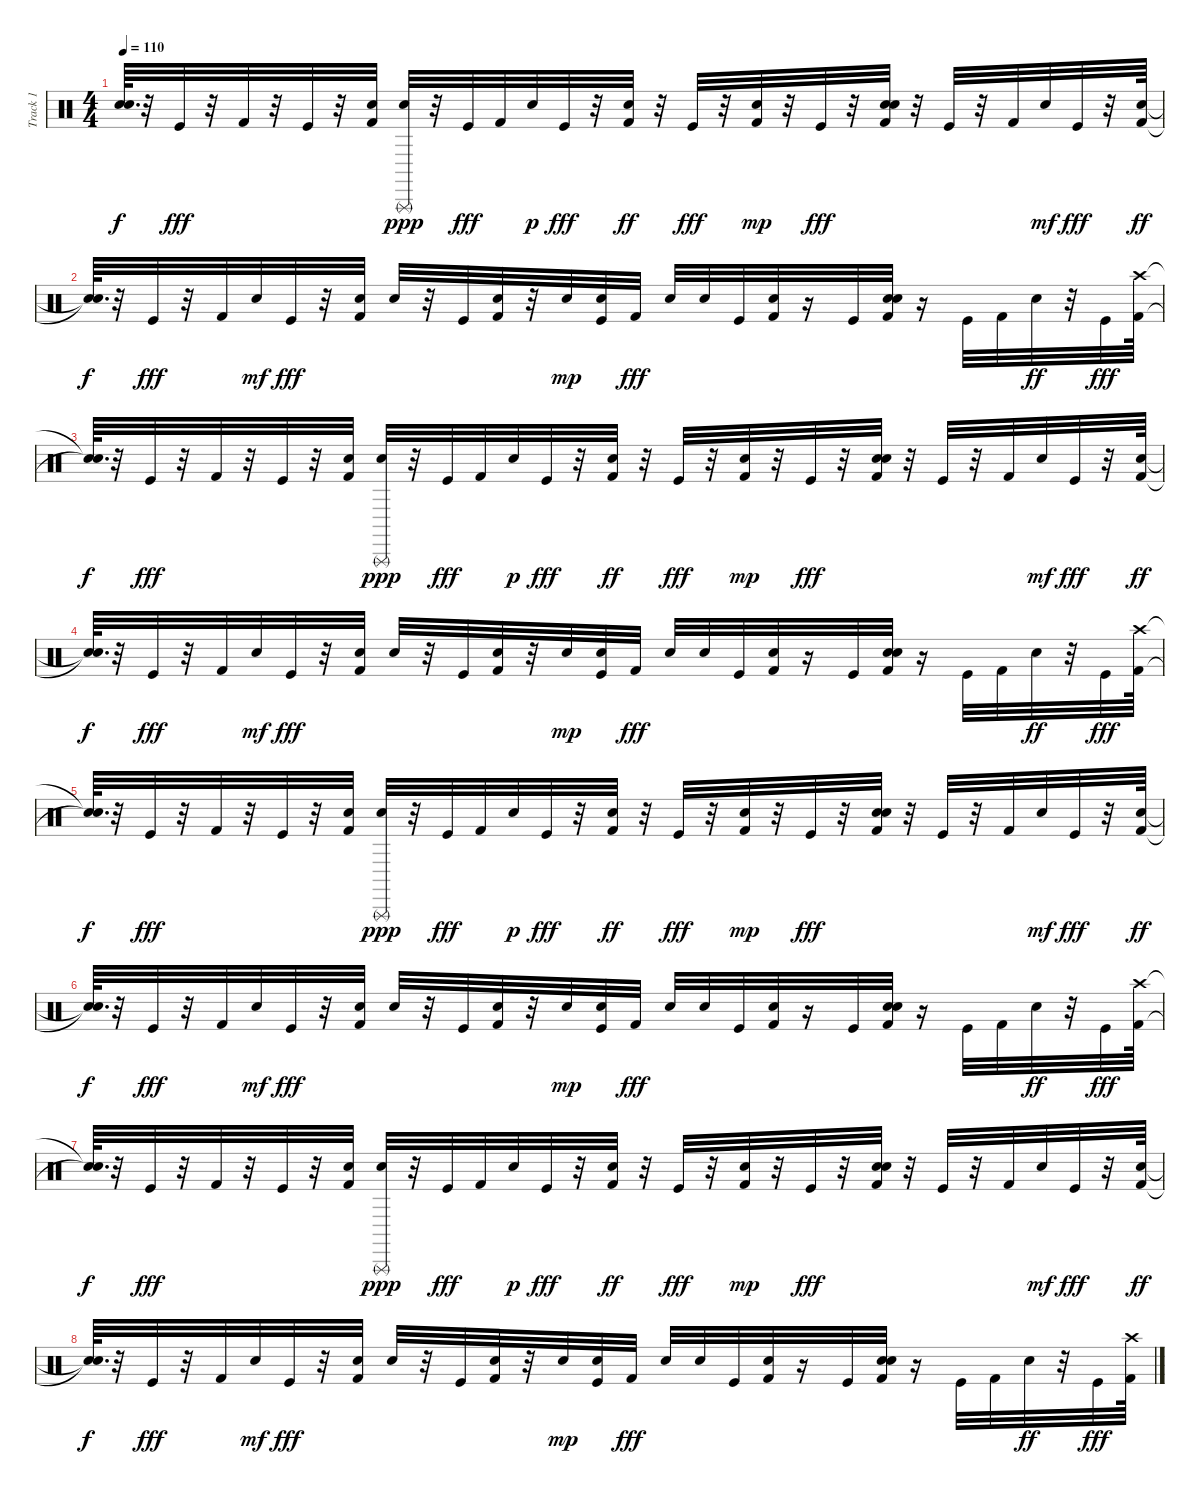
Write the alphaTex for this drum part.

\track ("Track 1" "Track 1") {mute instrument percussion}
\staff {score}
\articulation defaults
\ts (4 4)
\tempo 110
\clef neutral
\ks c
("Snare (hit)"{t} "Snare (hit)"{t}).64{d dy f} r.32 "Kick (hit)".32{dy fff} r.32 "Kick (hit) 2".32 r.32 "Kick (hit)".32 r.32 ("Kick (hit) 2" "Snare (hit)").32 ("Snare (hit) 2" "Triangle (rnute)").32{dy ppp} r.32 "Kick (hit)".32{dy fff} "Kick (hit) 2".32 "Snare (hit)".32{dy p} "Kick (hit)".32{dy fff} r.32 ("Kick (hit) 2" "Snare (hit)").32{dy ff} r.32 "Kick (hit)".32{dy fff} r.32 ("Kick (hit) 2" "Snare (hit)").32{dy mp} r.32 "Kick (hit)".32{dy fff} r.32 ("Kick (hit) 2" "Snare (hit)" "Snare (hit) 2").32 r.32 "Kick (hit)".32 r.32 "Kick (hit) 2".32 "Snare (hit)".32{dy mf} "Kick (hit)".32{dy fff} r.32 ("Kick (hit) 2" "Snare (hit)").64{dy ff} |
("Snare (hit)"{t} "Snare (hit)"{t}).64{d dy f} r.32 "Kick (hit)".32{dy fff} r.32 "Kick (hit) 2".32 "Snare (hit)".32{dy mf} "Kick (hit)".32{dy fff} r.32 ("Snare (hit) 2" "Kick (hit) 2").32 "Snare (hit)".32 r.32 "Kick (hit)".32 ("Snare (hit)" "Kick (hit) 2").32 r.32 "Snare (hit) 2".32{dy mp} ("Kick (hit)" "Snare (hit) 2").32 "Kick (hit) 2".32{dy fff} "Snare (hit)".32 "Snare (hit) 2".32 "Kick (hit)".32 ("Snare (hit)" "Kick (hit) 2").32 r.16 "Kick (hit)".32 ("Snare (hit) 2" "Kick (hit) 2" "Snare (hit)").32 r.16 "Kick (hit)".32 "Kick (hit) 2".32 "Snare (hit)".32{dy ff} r.32 "Kick (hit)".32{dy fff} ("Crash high (hit)" "Kick (hit) 2").64 |
("Snare (hit)"{t} "Snare (hit)"{t}).64{d dy f} r.32 "Kick (hit)".32{dy fff} r.32 "Kick (hit) 2".32 r.32 "Kick (hit)".32 r.32 ("Kick (hit) 2" "Snare (hit)").32 ("Snare (hit) 2" "Triangle (rnute)").32{dy ppp} r.32 "Kick (hit)".32{dy fff} "Kick (hit) 2".32 "Snare (hit)".32{dy p} "Kick (hit)".32{dy fff} r.32 ("Kick (hit) 2" "Snare (hit)").32{dy ff} r.32 "Kick (hit)".32{dy fff} r.32 ("Kick (hit) 2" "Snare (hit)").32{dy mp} r.32 "Kick (hit)".32{dy fff} r.32 ("Kick (hit) 2" "Snare (hit)" "Snare (hit) 2").32 r.32 "Kick (hit)".32 r.32 "Kick (hit) 2".32 "Snare (hit)".32{dy mf} "Kick (hit)".32{dy fff} r.32 ("Kick (hit) 2" "Snare (hit)").64{dy ff} |
("Snare (hit)"{t} "Snare (hit)"{t}).64{d dy f} r.32 "Kick (hit)".32{dy fff} r.32 "Kick (hit) 2".32 "Snare (hit)".32{dy mf} "Kick (hit)".32{dy fff} r.32 ("Snare (hit) 2" "Kick (hit) 2").32 "Snare (hit)".32 r.32 "Kick (hit)".32 ("Snare (hit)" "Kick (hit) 2").32 r.32 "Snare (hit) 2".32{dy mp} ("Kick (hit)" "Snare (hit) 2").32 "Kick (hit) 2".32{dy fff} "Snare (hit)".32 "Snare (hit) 2".32 "Kick (hit)".32 ("Snare (hit)" "Kick (hit) 2").32 r.16 "Kick (hit)".32 ("Snare (hit) 2" "Kick (hit) 2" "Snare (hit)").32 r.16 "Kick (hit)".32 "Kick (hit) 2".32 "Snare (hit)".32{dy ff} r.32 "Kick (hit)".32{dy fff} ("Crash high (hit)" "Kick (hit) 2").64 |
("Snare (hit)"{t} "Snare (hit)"{t}).64{d dy f} r.32 "Kick (hit)".32{dy fff} r.32 "Kick (hit) 2".32 r.32 "Kick (hit)".32 r.32 ("Kick (hit) 2" "Snare (hit)").32 ("Snare (hit) 2" "Triangle (rnute)").32{dy ppp} r.32 "Kick (hit)".32{dy fff} "Kick (hit) 2".32 "Snare (hit)".32{dy p} "Kick (hit)".32{dy fff} r.32 ("Kick (hit) 2" "Snare (hit)").32{dy ff} r.32 "Kick (hit)".32{dy fff} r.32 ("Kick (hit) 2" "Snare (hit)").32{dy mp} r.32 "Kick (hit)".32{dy fff} r.32 ("Kick (hit) 2" "Snare (hit)" "Snare (hit) 2").32 r.32 "Kick (hit)".32 r.32 "Kick (hit) 2".32 "Snare (hit)".32{dy mf} "Kick (hit)".32{dy fff} r.32 ("Kick (hit) 2" "Snare (hit)").64{dy ff} |
("Snare (hit)"{t} "Snare (hit)"{t}).64{d dy f} r.32 "Kick (hit)".32{dy fff} r.32 "Kick (hit) 2".32 "Snare (hit)".32{dy mf} "Kick (hit)".32{dy fff} r.32 ("Snare (hit) 2" "Kick (hit) 2").32 "Snare (hit)".32 r.32 "Kick (hit)".32 ("Snare (hit)" "Kick (hit) 2").32 r.32 "Snare (hit) 2".32{dy mp} ("Kick (hit)" "Snare (hit) 2").32 "Kick (hit) 2".32{dy fff} "Snare (hit)".32 "Snare (hit) 2".32 "Kick (hit)".32 ("Snare (hit)" "Kick (hit) 2").32 r.16 "Kick (hit)".32 ("Snare (hit) 2" "Kick (hit) 2" "Snare (hit)").32 r.16 "Kick (hit)".32 "Kick (hit) 2".32 "Snare (hit)".32{dy ff} r.32 "Kick (hit)".32{dy fff} ("Crash high (hit)" "Kick (hit) 2").64 |
("Snare (hit)"{t} "Snare (hit)"{t}).64{d dy f} r.32 "Kick (hit)".32{dy fff} r.32 "Kick (hit) 2".32 r.32 "Kick (hit)".32 r.32 ("Kick (hit) 2" "Snare (hit)").32 ("Snare (hit) 2" "Triangle (rnute)").32{dy ppp} r.32 "Kick (hit)".32{dy fff} "Kick (hit) 2".32 "Snare (hit)".32{dy p} "Kick (hit)".32{dy fff} r.32 ("Kick (hit) 2" "Snare (hit)").32{dy ff} r.32 "Kick (hit)".32{dy fff} r.32 ("Kick (hit) 2" "Snare (hit)").32{dy mp} r.32 "Kick (hit)".32{dy fff} r.32 ("Kick (hit) 2" "Snare (hit)" "Snare (hit) 2").32 r.32 "Kick (hit)".32 r.32 "Kick (hit) 2".32 "Snare (hit)".32{dy mf} "Kick (hit)".32{dy fff} r.32 ("Kick (hit) 2" "Snare (hit)").64{dy ff} |
("Snare (hit)"{t} "Snare (hit)"{t}).64{d dy f} r.32 "Kick (hit)".32{dy fff} r.32 "Kick (hit) 2".32 "Snare (hit)".32{dy mf} "Kick (hit)".32{dy fff} r.32 ("Snare (hit) 2" "Kick (hit) 2").32 "Snare (hit)".32 r.32 "Kick (hit)".32 ("Snare (hit)" "Kick (hit) 2").32 r.32 "Snare (hit) 2".32{dy mp} ("Kick (hit)" "Snare (hit) 2").32 "Kick (hit) 2".32{dy fff} "Snare (hit)".32 "Snare (hit) 2".32 "Kick (hit)".32 ("Snare (hit)" "Kick (hit) 2").32 r.16 "Kick (hit)".32 ("Snare (hit) 2" "Kick (hit) 2" "Snare (hit)").32 r.16 "Kick (hit)".32 "Kick (hit) 2".32 "Snare (hit)".32{dy ff} r.32 "Kick (hit)".32{dy fff} ("Crash high (hit)" "Kick (hit) 2").64
